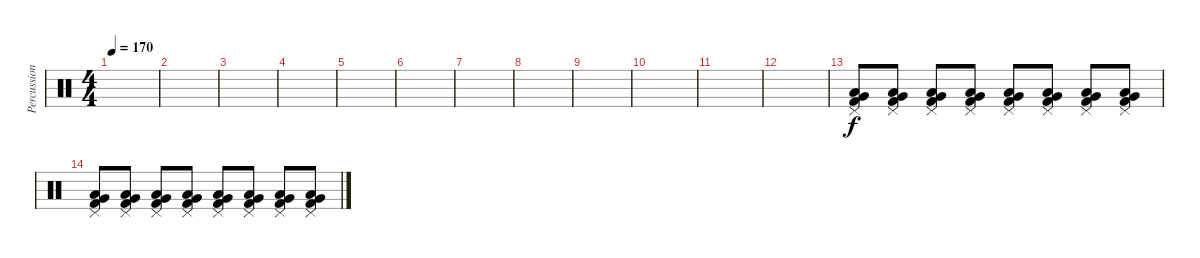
\track ("Percussion" "Percussion") {instrument percussion}
\staff {score}
\articulation defaults
\ts (4 4)
\tempo 170
\clef neutral
\ks c
|
|
|
|
|
|
|
|
|
|
|
|
("Pedal Hi-Hat (hit)" "Low Tom (hit)" "Very Low Tom (hit)" "Kick (hit) 2").8 ("Pedal Hi-Hat (hit)" "Low Tom (hit)" "Very Low Tom (hit)" "Kick (hit) 2").8 ("Pedal Hi-Hat (hit)" "Low Tom (hit)" "Very Low Tom (hit)" "Kick (hit) 2").8 ("Pedal Hi-Hat (hit)" "Low Tom (hit)" "Very Low Tom (hit)" "Kick (hit) 2").8 ("Pedal Hi-Hat (hit)" "Low Tom (hit)" "Very Low Tom (hit)" "Kick (hit) 2").8 ("Pedal Hi-Hat (hit)" "Low Tom (hit)" "Very Low Tom (hit)" "Kick (hit) 2").8 ("Pedal Hi-Hat (hit)" "Low Tom (hit)" "Very Low Tom (hit)" "Kick (hit) 2").8 ("Pedal Hi-Hat (hit)" "Low Tom (hit)" "Very Low Tom (hit)" "Kick (hit) 2").8 |
("Pedal Hi-Hat (hit)" "Low Tom (hit)" "Very Low Tom (hit)" "Kick (hit) 2").8 ("Pedal Hi-Hat (hit)" "Low Tom (hit)" "Very Low Tom (hit)" "Kick (hit) 2").8 ("Pedal Hi-Hat (hit)" "Low Tom (hit)" "Very Low Tom (hit)" "Kick (hit) 2").8 ("Pedal Hi-Hat (hit)" "Low Tom (hit)" "Very Low Tom (hit)" "Kick (hit) 2").8 ("Pedal Hi-Hat (hit)" "Low Tom (hit)" "Very Low Tom (hit)" "Kick (hit) 2").8 ("Pedal Hi-Hat (hit)" "Low Tom (hit)" "Very Low Tom (hit)" "Kick (hit) 2").8 ("Pedal Hi-Hat (hit)" "Low Tom (hit)" "Very Low Tom (hit)" "Kick (hit) 2").8 ("Pedal Hi-Hat (hit)" "Low Tom (hit)" "Very Low Tom (hit)" "Kick (hit) 2").8
